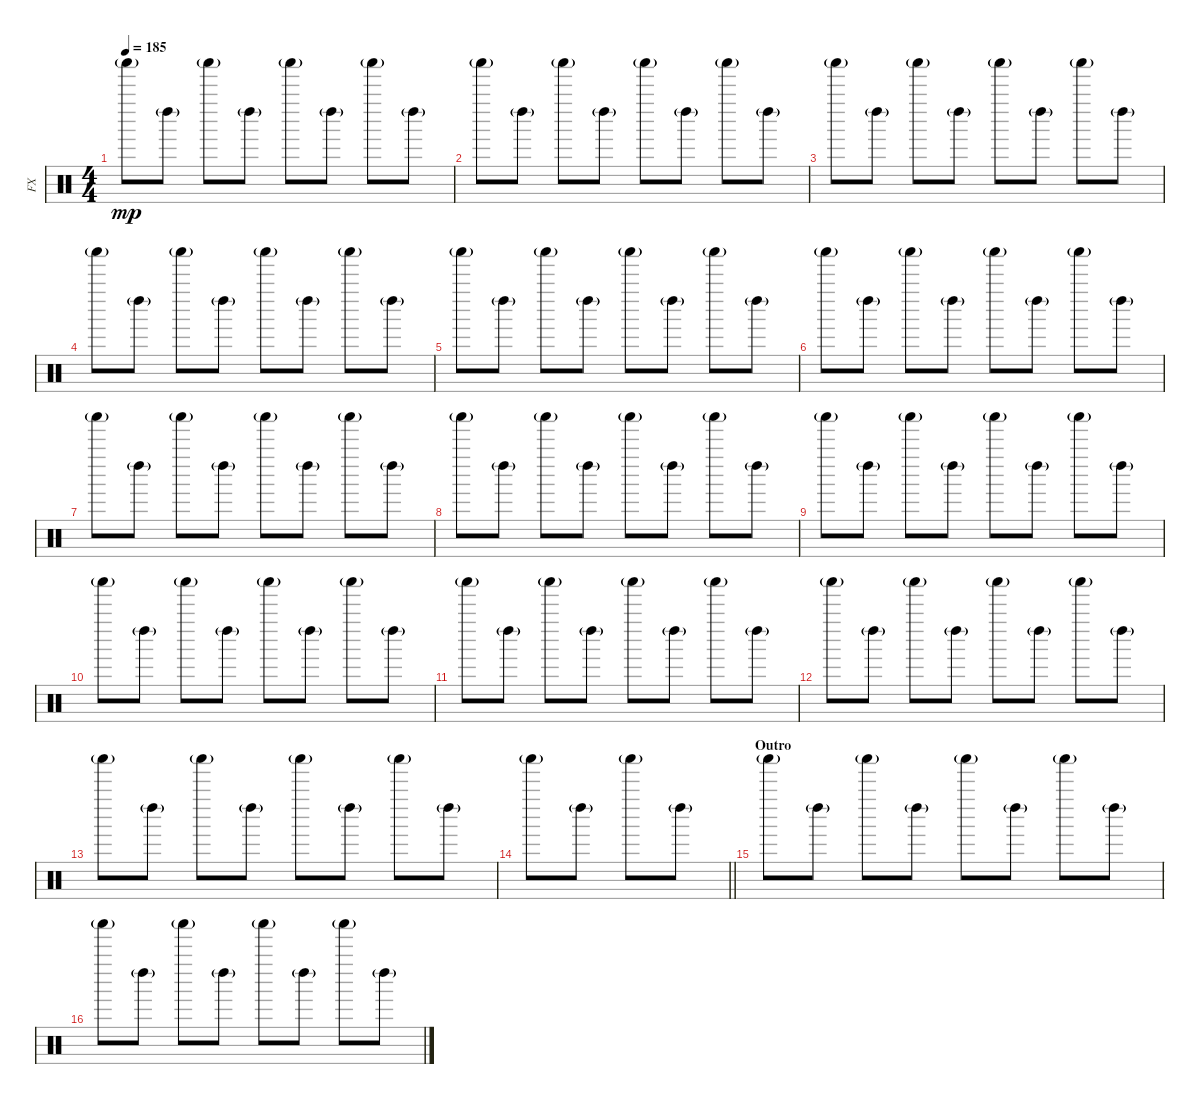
\track ("FX" "FX") {instrument percussion}
\staff {score}
\articulation defaults
\ts (4 4)
\tempo 185
\clef neutral
\ks c "Shaker (hit)"{g}.8{dy mp} "Left Maraca (hit)"{g}.8 "Shaker (hit)"{g}.8 "Left Maraca (hit)"{g}.8 "Shaker (hit)"{g}.8 "Left Maraca (hit)"{g}.8 "Shaker (hit)"{g}.8 "Left Maraca (hit)"{g}.8
|
"Shaker (hit)"{g}.8 "Left Maraca (hit)"{g}.8 "Shaker (hit)"{g}.8 "Left Maraca (hit)"{g}.8 "Shaker (hit)"{g}.8 "Left Maraca (hit)"{g}.8 "Shaker (hit)"{g}.8 "Left Maraca (hit)"{g}.8 |
"Shaker (hit)"{g}.8 "Left Maraca (hit)"{g}.8 "Shaker (hit)"{g}.8 "Left Maraca (hit)"{g}.8 "Shaker (hit)"{g}.8 "Left Maraca (hit)"{g}.8 "Shaker (hit)"{g}.8 "Left Maraca (hit)"{g}.8 |
"Shaker (hit)"{g}.8 "Left Maraca (hit)"{g}.8 "Shaker (hit)"{g}.8 "Left Maraca (hit)"{g}.8 "Shaker (hit)"{g}.8 "Left Maraca (hit)"{g}.8 "Shaker (hit)"{g}.8 "Left Maraca (hit)"{g}.8 |
"Shaker (hit)"{g}.8 "Left Maraca (hit)"{g}.8 "Shaker (hit)"{g}.8 "Left Maraca (hit)"{g}.8 "Shaker (hit)"{g}.8 "Left Maraca (hit)"{g}.8 "Shaker (hit)"{g}.8 "Left Maraca (hit)"{g}.8 |
"Shaker (hit)"{g}.8 "Left Maraca (hit)"{g}.8 "Shaker (hit)"{g}.8 "Left Maraca (hit)"{g}.8 "Shaker (hit)"{g}.8 "Left Maraca (hit)"{g}.8 "Shaker (hit)"{g}.8 "Left Maraca (hit)"{g}.8 |
"Shaker (hit)"{g}.8 "Left Maraca (hit)"{g}.8 "Shaker (hit)"{g}.8 "Left Maraca (hit)"{g}.8 "Shaker (hit)"{g}.8 "Left Maraca (hit)"{g}.8 "Shaker (hit)"{g}.8 "Left Maraca (hit)"{g}.8 |
"Shaker (hit)"{g}.8 "Left Maraca (hit)"{g}.8 "Shaker (hit)"{g}.8 "Left Maraca (hit)"{g}.8 "Shaker (hit)"{g}.8 "Left Maraca (hit)"{g}.8 "Shaker (hit)"{g}.8 "Left Maraca (hit)"{g}.8 |
"Shaker (hit)"{g}.8 "Left Maraca (hit)"{g}.8 "Shaker (hit)"{g}.8 "Left Maraca (hit)"{g}.8 "Shaker (hit)"{g}.8 "Left Maraca (hit)"{g}.8 "Shaker (hit)"{g}.8 "Left Maraca (hit)"{g}.8 |
"Shaker (hit)"{g}.8 "Left Maraca (hit)"{g}.8 "Shaker (hit)"{g}.8 "Left Maraca (hit)"{g}.8 "Shaker (hit)"{g}.8 "Left Maraca (hit)"{g}.8 "Shaker (hit)"{g}.8 "Left Maraca (hit)"{g}.8 |
"Shaker (hit)"{g}.8 "Left Maraca (hit)"{g}.8 "Shaker (hit)"{g}.8 "Left Maraca (hit)"{g}.8 "Shaker (hit)"{g}.8 "Left Maraca (hit)"{g}.8 "Shaker (hit)"{g}.8 "Left Maraca (hit)"{g}.8 |
"Shaker (hit)"{g}.8 "Left Maraca (hit)"{g}.8 "Shaker (hit)"{g}.8 "Left Maraca (hit)"{g}.8 "Shaker (hit)"{g}.8 "Left Maraca (hit)"{g}.8 "Shaker (hit)"{g}.8 "Left Maraca (hit)"{g}.8 |
"Shaker (hit)"{g}.8 "Left Maraca (hit)"{g}.8 "Shaker (hit)"{g}.8 "Left Maraca (hit)"{g}.8 "Shaker (hit)"{g}.8 "Left Maraca (hit)"{g}.8 "Shaker (hit)"{g}.8 "Left Maraca (hit)"{g}.8 |
\barLineRight lightlight "Shaker (hit)"{g}.8 "Left Maraca (hit)"{g}.8 "Shaker (hit)"{g}.8 "Left Maraca (hit)"{g}.8
|
\section ("" "Outro")
"Shaker (hit)"{g}.8 "Left Maraca (hit)"{g}.8 "Shaker (hit)"{g}.8 "Left Maraca (hit)"{g}.8 "Shaker (hit)"{g}.8 "Left Maraca (hit)"{g}.8 "Shaker (hit)"{g}.8 "Left Maraca (hit)"{g}.8 |
"Shaker (hit)"{g}.8 "Left Maraca (hit)"{g}.8 "Shaker (hit)"{g}.8 "Left Maraca (hit)"{g}.8 "Shaker (hit)"{g}.8 "Left Maraca (hit)"{g}.8 "Shaker (hit)"{g}.8 "Left Maraca (hit)"{g}.8
